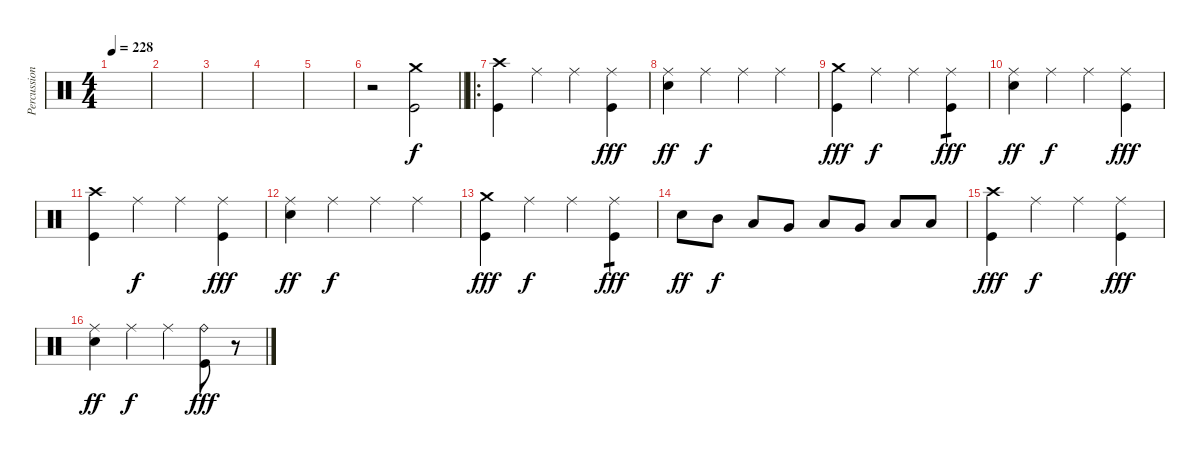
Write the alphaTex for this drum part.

\track ("Percussion" "Percussion") {instrument percussion}
\staff {score}
\articulation defaults
\ts (4 4)
\tempo 228
\clef neutral
\ks c
|
|
|
|
|
\barLineRight lightlight
r.2 ("Crash medium (hit)" "Kick (hit)").2 |
\ro
("Crash high (hit)" "Kick (hit)").4 "Ride (middle)".4{dy f} "Ride (middle)".4 ("Ride (middle)" "Kick (hit)").4{dy fff} |
("Ride (middle)" "Snare (hit) 2").4{dy ff} "Ride (middle)".4{dy f} "Ride (middle)".4 "Ride (middle)".4 |
("Crash medium (hit)" "Kick (hit)").4{dy fff} "Ride (middle)".4{dy f} "Ride (middle)".4 ("Ride (middle)" "Kick (hit)").4{tp 1 dy fff} |
("Ride (middle)" "Snare (hit) 2").4{dy ff} "Ride (middle)".4{dy f} "Ride (middle)".4 ("Ride (middle)" "Kick (hit)").4{dy fff} |
("Crash high (hit)" "Kick (hit)").4 "Ride (middle)".4{dy f} "Ride (middle)".4 ("Ride (middle)" "Kick (hit)").4{dy fff} |
("Ride (middle)" "Snare (hit) 2").4{dy ff} "Ride (middle)".4{dy f} "Ride (middle)".4 "Ride (middle)".4 |
("Crash medium (hit)" "Kick (hit)").4{dy fff} "Ride (middle)".4{dy f} "Ride (middle)".4 ("Ride (middle)" "Kick (hit)").4{tp 1 dy fff} |
"Snare (hit) 2".8{dy ff} "Mid Tom (hit)".8{dy f} "Low Tom (hit)".8 "Very Low Tom (hit)".8 "Low Tom (hit)".8 "Very Low Tom (hit)".8 "Low Floor Tom (hit)".8 "Low Floor Tom (hit)".8 |
("Crash high (hit)" "Kick (hit)").4{dy fff} "Ride (middle)".4{dy f} "Ride (middle)".4 ("Ride (middle)" "Kick (hit)").4{dy fff} |
("Ride (middle)" "Snare (hit) 2").4{dy ff} "Ride (middle)".4{dy f} "Ride (middle)".4 ("Ride (bell)" "Kick (hit)").8{dy fff} r.8
